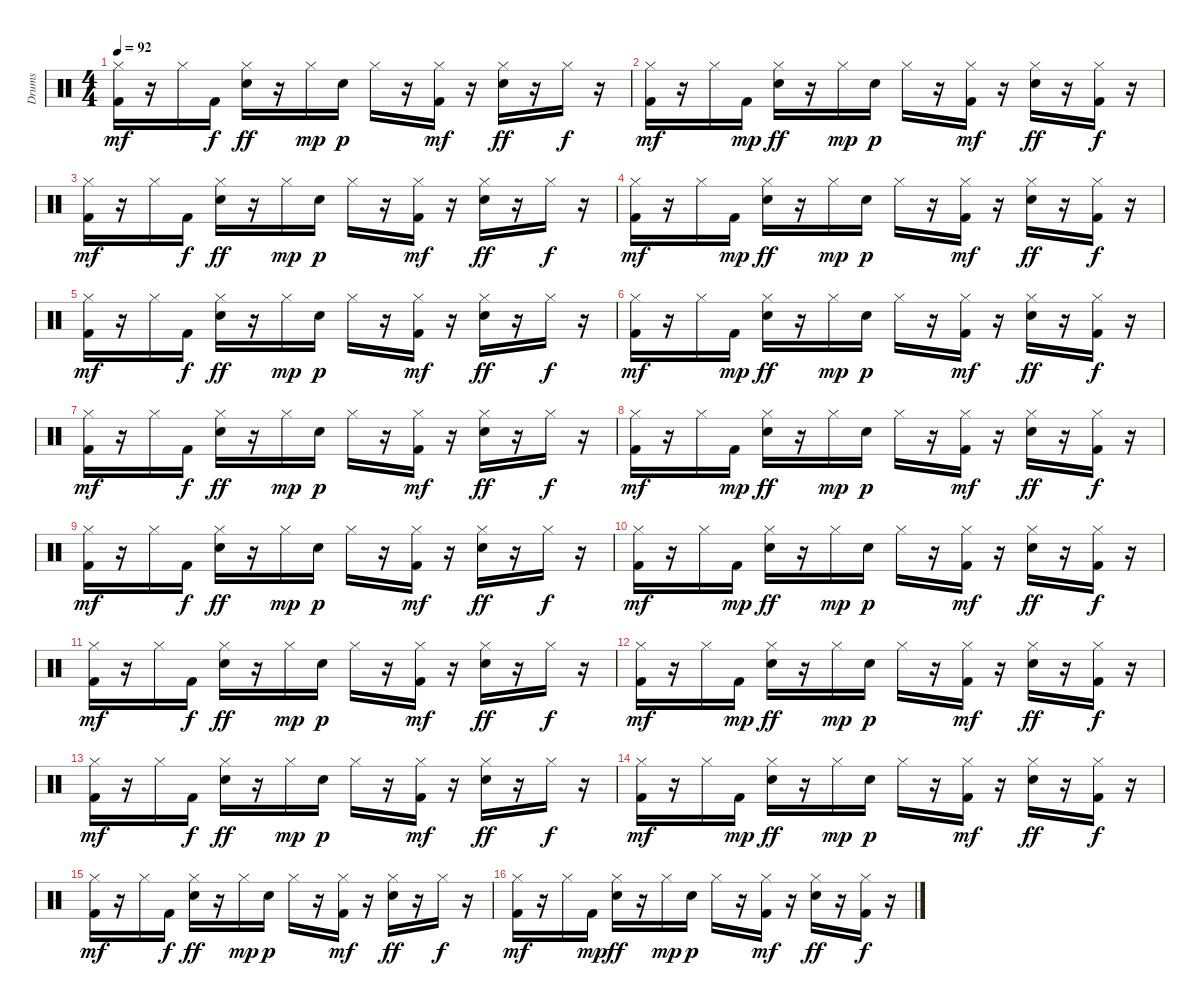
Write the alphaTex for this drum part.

\track ("Drums" "Drums") {instrument percussion}
\staff {score}
\articulation defaults
\ts (4 4)
\tempo 92
\clef neutral
\ks c
("Hi-Hat (closed)" "Kick (hit) 2").16{dy mf} r.16 "Hi-Hat (closed)".16 "Kick (hit) 2".16{dy f} ("Hi-Hat (closed)" "Snare (hit) 2").16{dy ff} r.16 "Hi-Hat (closed)".16{dy mp} "Snare (hit) 2".16{dy p} "Hi-Hat (closed)".16 r.16 ("Hi-Hat (closed)" "Kick (hit) 2").16{dy mf} r.16 ("Hi-Hat (closed)" "Snare (hit) 2").16{dy ff} r.16 "Hi-Hat (closed)".16{dy f} r.16 |
("Hi-Hat (closed)" "Kick (hit) 2").16{dy mf} r.16 "Hi-Hat (closed)".16 "Kick (hit) 2".16{dy mp} ("Hi-Hat (closed)" "Snare (hit) 2").16{dy ff} r.16 "Hi-Hat (closed)".16{dy mp} "Snare (hit) 2".16{dy p} "Hi-Hat (closed)".16 r.16 ("Hi-Hat (closed)" "Kick (hit) 2").16{dy mf} r.16 ("Hi-Hat (closed)" "Snare (hit) 2").16{dy ff} r.16 ("Hi-Hat (closed)" "Kick (hit) 2").16{dy f} r.16 |
("Hi-Hat (closed)" "Kick (hit) 2").16{dy mf} r.16 "Hi-Hat (closed)".16 "Kick (hit) 2".16{dy f} ("Hi-Hat (closed)" "Snare (hit) 2").16{dy ff} r.16 "Hi-Hat (closed)".16{dy mp} "Snare (hit) 2".16{dy p} "Hi-Hat (closed)".16 r.16 ("Hi-Hat (closed)" "Kick (hit) 2").16{dy mf} r.16 ("Hi-Hat (closed)" "Snare (hit) 2").16{dy ff} r.16 "Hi-Hat (closed)".16{dy f} r.16 |
("Hi-Hat (closed)" "Kick (hit) 2").16{dy mf} r.16 "Hi-Hat (closed)".16 "Kick (hit) 2".16{dy mp} ("Hi-Hat (closed)" "Snare (hit) 2").16{dy ff} r.16 "Hi-Hat (closed)".16{dy mp} "Snare (hit) 2".16{dy p} "Hi-Hat (closed)".16 r.16 ("Hi-Hat (closed)" "Kick (hit) 2").16{dy mf} r.16 ("Hi-Hat (closed)" "Snare (hit) 2").16{dy ff} r.16 ("Hi-Hat (closed)" "Kick (hit) 2").16{dy f} r.16 |
("Hi-Hat (closed)" "Kick (hit) 2").16{dy mf} r.16 "Hi-Hat (closed)".16 "Kick (hit) 2".16{dy f} ("Hi-Hat (closed)" "Snare (hit) 2").16{dy ff} r.16 "Hi-Hat (closed)".16{dy mp} "Snare (hit) 2".16{dy p} "Hi-Hat (closed)".16 r.16 ("Hi-Hat (closed)" "Kick (hit) 2").16{dy mf} r.16 ("Hi-Hat (closed)" "Snare (hit) 2").16{dy ff} r.16 "Hi-Hat (closed)".16{dy f} r.16 |
("Hi-Hat (closed)" "Kick (hit) 2").16{dy mf} r.16 "Hi-Hat (closed)".16 "Kick (hit) 2".16{dy mp} ("Hi-Hat (closed)" "Snare (hit) 2").16{dy ff} r.16 "Hi-Hat (closed)".16{dy mp} "Snare (hit) 2".16{dy p} "Hi-Hat (closed)".16 r.16 ("Hi-Hat (closed)" "Kick (hit) 2").16{dy mf} r.16 ("Hi-Hat (closed)" "Snare (hit) 2").16{dy ff} r.16 ("Hi-Hat (closed)" "Kick (hit) 2").16{dy f} r.16 |
("Hi-Hat (closed)" "Kick (hit) 2").16{dy mf} r.16 "Hi-Hat (closed)".16 "Kick (hit) 2".16{dy f} ("Hi-Hat (closed)" "Snare (hit) 2").16{dy ff} r.16 "Hi-Hat (closed)".16{dy mp} "Snare (hit) 2".16{dy p} "Hi-Hat (closed)".16 r.16 ("Hi-Hat (closed)" "Kick (hit) 2").16{dy mf} r.16 ("Hi-Hat (closed)" "Snare (hit) 2").16{dy ff} r.16 "Hi-Hat (closed)".16{dy f} r.16 |
("Hi-Hat (closed)" "Kick (hit) 2").16{dy mf} r.16 "Hi-Hat (closed)".16 "Kick (hit) 2".16{dy mp} ("Hi-Hat (closed)" "Snare (hit) 2").16{dy ff} r.16 "Hi-Hat (closed)".16{dy mp} "Snare (hit) 2".16{dy p} "Hi-Hat (closed)".16 r.16 ("Hi-Hat (closed)" "Kick (hit) 2").16{dy mf} r.16 ("Hi-Hat (closed)" "Snare (hit) 2").16{dy ff} r.16 ("Hi-Hat (closed)" "Kick (hit) 2").16{dy f} r.16 |
("Hi-Hat (closed)" "Kick (hit) 2").16{dy mf} r.16 "Hi-Hat (closed)".16 "Kick (hit) 2".16{dy f} ("Hi-Hat (closed)" "Snare (hit) 2").16{dy ff} r.16 "Hi-Hat (closed)".16{dy mp} "Snare (hit) 2".16{dy p} "Hi-Hat (closed)".16 r.16 ("Hi-Hat (closed)" "Kick (hit) 2").16{dy mf} r.16 ("Hi-Hat (closed)" "Snare (hit) 2").16{dy ff} r.16 "Hi-Hat (closed)".16{dy f} r.16 |
("Hi-Hat (closed)" "Kick (hit) 2").16{dy mf} r.16 "Hi-Hat (closed)".16 "Kick (hit) 2".16{dy mp} ("Hi-Hat (closed)" "Snare (hit) 2").16{dy ff} r.16 "Hi-Hat (closed)".16{dy mp} "Snare (hit) 2".16{dy p} "Hi-Hat (closed)".16 r.16 ("Hi-Hat (closed)" "Kick (hit) 2").16{dy mf} r.16 ("Hi-Hat (closed)" "Snare (hit) 2").16{dy ff} r.16 ("Hi-Hat (closed)" "Kick (hit) 2").16{dy f} r.16 |
("Hi-Hat (closed)" "Kick (hit) 2").16{dy mf} r.16 "Hi-Hat (closed)".16 "Kick (hit) 2".16{dy f} ("Hi-Hat (closed)" "Snare (hit) 2").16{dy ff} r.16 "Hi-Hat (closed)".16{dy mp} "Snare (hit) 2".16{dy p} "Hi-Hat (closed)".16 r.16 ("Hi-Hat (closed)" "Kick (hit) 2").16{dy mf} r.16 ("Hi-Hat (closed)" "Snare (hit) 2").16{dy ff} r.16 "Hi-Hat (closed)".16{dy f} r.16 |
("Hi-Hat (closed)" "Kick (hit) 2").16{dy mf} r.16 "Hi-Hat (closed)".16 "Kick (hit) 2".16{dy mp} ("Hi-Hat (closed)" "Snare (hit) 2").16{dy ff} r.16 "Hi-Hat (closed)".16{dy mp} "Snare (hit) 2".16{dy p} "Hi-Hat (closed)".16 r.16 ("Hi-Hat (closed)" "Kick (hit) 2").16{dy mf} r.16 ("Hi-Hat (closed)" "Snare (hit) 2").16{dy ff} r.16 ("Hi-Hat (closed)" "Kick (hit) 2").16{dy f} r.16 |
("Hi-Hat (closed)" "Kick (hit) 2").16{dy mf} r.16 "Hi-Hat (closed)".16 "Kick (hit) 2".16{dy f} ("Hi-Hat (closed)" "Snare (hit) 2").16{dy ff} r.16 "Hi-Hat (closed)".16{dy mp} "Snare (hit) 2".16{dy p} "Hi-Hat (closed)".16 r.16 ("Hi-Hat (closed)" "Kick (hit) 2").16{dy mf} r.16 ("Hi-Hat (closed)" "Snare (hit) 2").16{dy ff} r.16 "Hi-Hat (closed)".16{dy f} r.16 |
("Hi-Hat (closed)" "Kick (hit) 2").16{dy mf} r.16 "Hi-Hat (closed)".16 "Kick (hit) 2".16{dy mp} ("Hi-Hat (closed)" "Snare (hit) 2").16{dy ff} r.16 "Hi-Hat (closed)".16{dy mp} "Snare (hit) 2".16{dy p} "Hi-Hat (closed)".16 r.16 ("Hi-Hat (closed)" "Kick (hit) 2").16{dy mf} r.16 ("Hi-Hat (closed)" "Snare (hit) 2").16{dy ff} r.16 ("Hi-Hat (closed)" "Kick (hit) 2").16{dy f} r.16 |
("Hi-Hat (closed)" "Kick (hit) 2").16{dy mf} r.16 "Hi-Hat (closed)".16 "Kick (hit) 2".16{dy f} ("Hi-Hat (closed)" "Snare (hit) 2").16{dy ff} r.16 "Hi-Hat (closed)".16{dy mp} "Snare (hit) 2".16{dy p} "Hi-Hat (closed)".16 r.16 ("Hi-Hat (closed)" "Kick (hit) 2").16{dy mf} r.16 ("Hi-Hat (closed)" "Snare (hit) 2").16{dy ff} r.16 "Hi-Hat (closed)".16{dy f} r.16 |
("Hi-Hat (closed)" "Kick (hit) 2").16{dy mf} r.16 "Hi-Hat (closed)".16 "Kick (hit) 2".16{dy mp} ("Hi-Hat (closed)" "Snare (hit) 2").16{dy ff} r.16 "Hi-Hat (closed)".16{dy mp} "Snare (hit) 2".16{dy p} "Hi-Hat (closed)".16 r.16 ("Hi-Hat (closed)" "Kick (hit) 2").16{dy mf} r.16 ("Hi-Hat (closed)" "Snare (hit) 2").16{dy ff} r.16 ("Hi-Hat (closed)" "Kick (hit) 2").16{dy f} r.16
